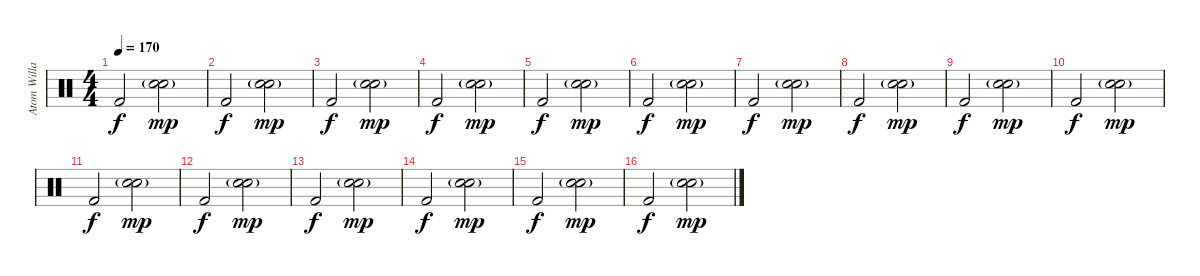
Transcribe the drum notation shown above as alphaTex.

\track ("Atom Willard" "Atom Willa") {instrument percussion}
\staff {score}
\articulation defaults
\ts (4 4)
\tempo 170
\clef neutral
\ks c "Kick (hit) 2".2{dy f}
("Electric Snare (hit)"{g} "Snare (hit) 2"{g}).2{dy mp} |
"Kick (hit) 2".2{dy f} ("Electric Snare (hit)"{g} "Snare (hit) 2"{g}).2{dy mp} |
"Kick (hit) 2".2{dy f} ("Electric Snare (hit)"{g} "Snare (hit) 2"{g}).2{dy mp} |
"Kick (hit) 2".2{dy f} ("Electric Snare (hit)"{g} "Snare (hit) 2"{g}).2{dy mp} |
"Kick (hit) 2".2{dy f} ("Electric Snare (hit)"{g} "Snare (hit) 2"{g}).2{dy mp} |
"Kick (hit) 2".2{dy f volume 8} ("Electric Snare (hit)"{g} "Snare (hit) 2"{g}).2{dy mp} |
"Kick (hit) 2".2{dy f volume 8} ("Electric Snare (hit)"{g} "Snare (hit) 2"{g}).2{dy mp} |
"Kick (hit) 2".2{dy f volume 8} ("Electric Snare (hit)"{g} "Snare (hit) 2"{g}).2{dy mp} |
"Kick (hit) 2".2{dy f volume 8} ("Electric Snare (hit)"{g} "Snare (hit) 2"{g}).2{dy mp} |
"Kick (hit) 2".2{dy f volume 8} ("Electric Snare (hit)"{g} "Snare (hit) 2"{g}).2{dy mp} |
"Kick (hit) 2".2{dy f volume 10} ("Electric Snare (hit)"{g} "Snare (hit) 2"{g}).2{dy mp} |
"Kick (hit) 2".2{dy f volume 10} ("Electric Snare (hit)"{g} "Snare (hit) 2"{g}).2{dy mp} |
"Kick (hit) 2".2{dy f volume 10} ("Electric Snare (hit)"{g} "Snare (hit) 2"{g}).2{dy mp} |
"Kick (hit) 2".2{dy f volume 10} ("Electric Snare (hit)"{g} "Snare (hit) 2"{g}).2{dy mp} |
"Kick (hit) 2".2{dy f volume 10} ("Electric Snare (hit)"{g} "Snare (hit) 2"{g}).2{dy mp} |
"Kick (hit) 2".2{dy f volume 11} ("Electric Snare (hit)"{g} "Snare (hit) 2"{g}).2{dy mp}
